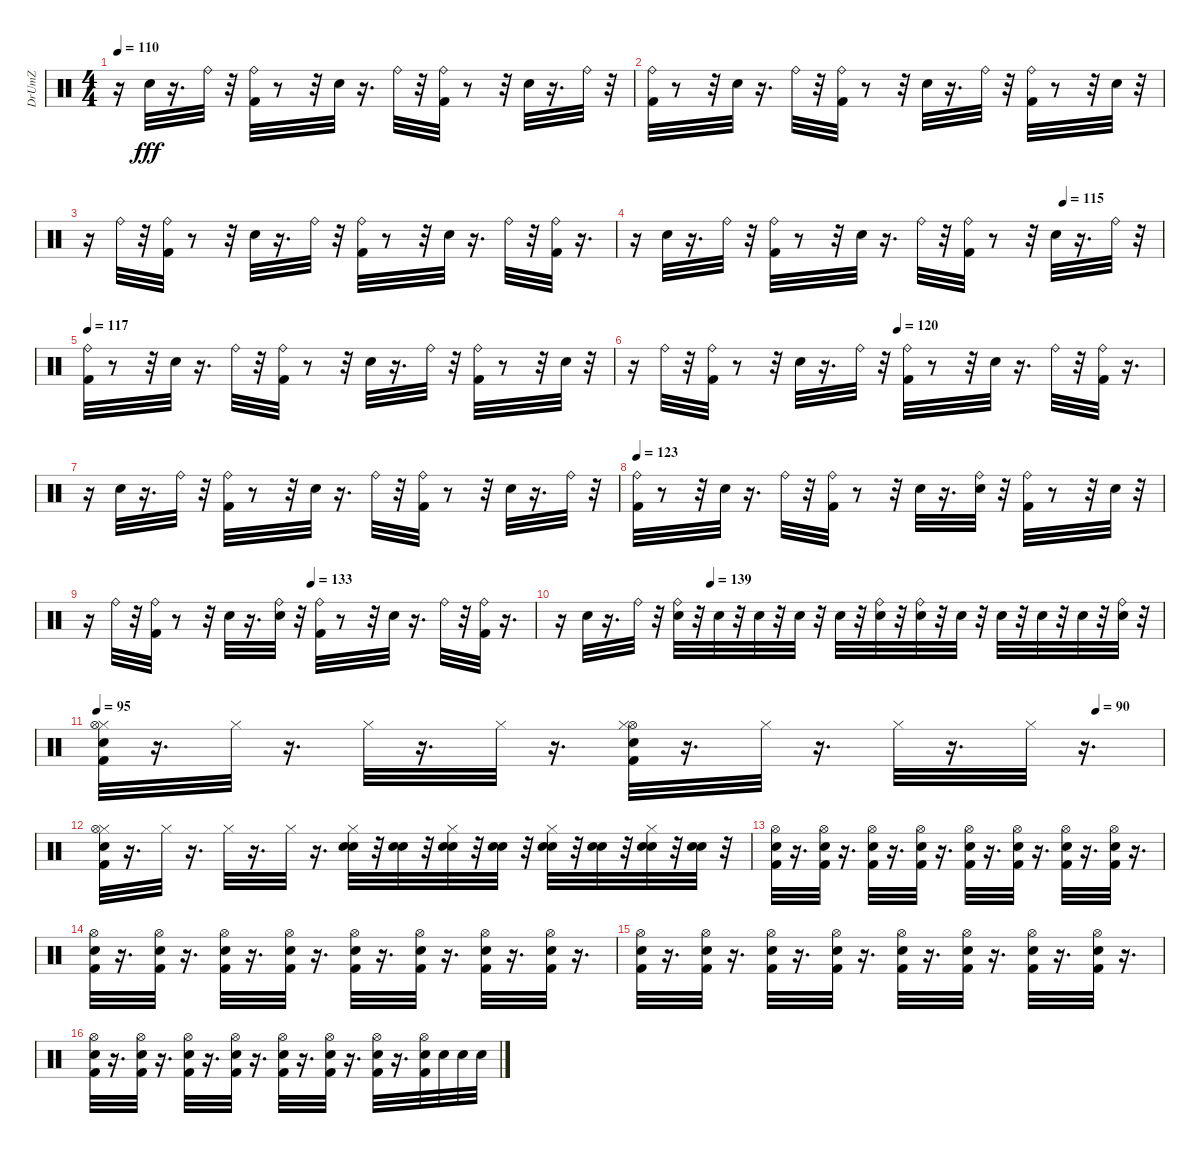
\track ("DrUmZ" "DrUmZ") {instrument percussion}
\staff {score}
\articulation defaults
\ts (4 4)
\tempo 110
\clef neutral
\ks c
r.16{dy fff} "Electric Snare (hit)".32 r.16{d} "Ride (bell)".32 r.32 ("Kick (hit) 2" "Ride (bell)").32 r.8 r.32 "Electric Snare (hit)".32 r.16{d} "Ride (bell)".32 r.32 ("Kick (hit) 2" "Ride (bell)").32 r.8 r.32 "Electric Snare (hit)".32 r.16{d} "Ride (bell)".32 r.32 |
("Ride (bell)" "Kick (hit) 2").32 r.8 r.32 "Electric Snare (hit)".32 r.16{d} "Ride (bell)".32 r.32 ("Kick (hit) 2" "Ride (bell)").32 r.8 r.32 "Electric Snare (hit)".32 r.16{d} "Ride (bell)".32 r.32 ("Kick (hit) 2" "Ride (bell)").32 r.8 r.32 "Electric Snare (hit)".32 r.32 |
r.16 "Ride (bell)".32 r.32 ("Kick (hit) 2" "Ride (bell)").32 r.8 r.32 "Electric Snare (hit)".32 r.16{d} "Ride (bell)".32 r.32 ("Ride (bell)" "Kick (hit) 2").32 r.8 r.32 "Electric Snare (hit)".32 r.16{d} "Ride (bell)".32 r.32 ("Kick (hit) 2" "Ride (bell)").32 r.16{d} |
\tempo (115 0.8125)
r.16 "Electric Snare (hit)".32 r.16{d} "Ride (bell)".32 r.32 ("Kick (hit) 2" "Ride (bell)").32 r.8 r.32 "Electric Snare (hit)".32 r.16{d} "Ride (bell)".32 r.32 ("Kick (hit) 2" "Ride (bell)").32 r.8 r.32 "Electric Snare (hit)".32 r.16{d} "Ride (bell)".32 r.32 |
\tempo 117
("Ride (bell)" "Kick (hit) 2").32 r.8 r.32 "Electric Snare (hit)".32 r.16{d} "Ride (bell)".32 r.32 ("Kick (hit) 2" "Ride (bell)").32 r.8 r.32 "Electric Snare (hit)".32 r.16{d} "Ride (bell)".32 r.32 ("Kick (hit) 2" "Ride (bell)").32 r.8 r.32 "Electric Snare (hit)".32 r.32 |
\tempo (120 0.5)
r.16 "Ride (bell)".32 r.32 ("Kick (hit) 2" "Ride (bell)").32 r.8 r.32 "Electric Snare (hit)".32 r.16{d} "Ride (bell)".32 r.32 ("Ride (bell)" "Kick (hit) 2").32 r.8 r.32 "Electric Snare (hit)".32 r.16{d} "Ride (bell)".32 r.32 ("Kick (hit) 2" "Ride (bell)").32 r.16{d} |
r.16 "Electric Snare (hit)".32 r.16{d} "Ride (bell)".32 r.32 ("Kick (hit) 2" "Ride (bell)").32 r.8 r.32 "Electric Snare (hit)".32 r.16{d} "Ride (bell)".32 r.32 ("Kick (hit) 2" "Ride (bell)").32 r.8 r.32 "Electric Snare (hit)".32 r.16{d} "Ride (bell)".32 r.32 |
\tempo 123
("Ride (bell)" "Kick (hit) 2").32 r.8 r.32 "Electric Snare (hit)".32 r.16{d} "Ride (bell)".32 r.32 ("Kick (hit) 2" "Ride (bell)").32 r.8 r.32 "Electric Snare (hit)".32 r.16{d} ("Ride (bell)" "Electric Snare (hit)").32 r.32 ("Kick (hit) 2" "Ride (bell)").32 r.8 r.32 "Electric Snare (hit)".32 r.32 |
\tempo (133 0.5)
r.16 "Ride (bell)".32 r.32 ("Kick (hit) 2" "Ride (bell)").32 r.8 r.32 "Electric Snare (hit)".32 r.16{d} ("Ride (bell)" "Electric Snare (hit)").32 r.32 ("Ride (bell)" "Kick (hit) 2").32 r.8 r.32 "Electric Snare (hit)".32 r.16{d} "Ride (bell)".32 r.32 ("Kick (hit) 2" "Ride (bell)").32 r.16{d} |
\tempo (139 0.25)
r.16 "Electric Snare (hit)".32 r.16{d} "Ride (bell)".32 r.32 ("Ride (bell)" "Electric Snare (hit)").32 r.32 "Electric Snare (hit)".32 r.32 "Electric Snare (hit)".32 r.32 "Electric Snare (hit)".32 r.32 "Electric Snare (hit)".32 r.32 ("Ride (bell)" "Electric Snare (hit)").32 r.32 ("Ride (bell)" "Electric Snare (hit)").32 r.32 "Electric Snare (hit)".32 r.32 "Electric Snare (hit)".32 r.32 "Electric Snare (hit)".32 r.32 "Electric Snare (hit)".32 r.32 ("Ride (bell)" "Electric Snare (hit)").32 r.32 |
\tempo 95
\tempo (90 0.9375)
("Kick (hit) 2" "Electric Snare (hit)" "Hi-Hat (closed)" "Hi-Hat (open)").32 r.16{d} "Hi-Hat (closed)".32 r.16{d} "Hi-Hat (closed)".32 r.16{d} "Hi-Hat (closed)".32 r.16{d} ("Hi-Hat (open)" "Hi-Hat (closed)" "Electric Snare (hit)" "Kick (hit) 2").32 r.16{d} "Hi-Hat (closed)".32 r.16{d} "Hi-Hat (closed)".32 r.16{d} "Hi-Hat (closed)".32 r.16{d} |
("Hi-Hat (closed)" "Electric Snare (hit)" "Kick (hit) 2" "Hi-Hat (open)").32 r.16{d} "Hi-Hat (closed)".32 r.16{d} "Hi-Hat (closed)".32 r.16{d} "Hi-Hat (closed)".32 r.16{d} ("Snare (hit) 2" "Hi-Hat (closed)" "Electric Snare (hit)").32 r.32 ("Snare (hit) 2" "Electric Snare (hit)").32 r.32 ("Snare (hit) 2" "Hi-Hat (closed)" "Electric Snare (hit)").32 r.32 ("Snare (hit) 2" "Electric Snare (hit)").32 r.32 ("Snare (hit) 2" "Hi-Hat (closed)" "Electric Snare (hit)").32 r.32 ("Electric Snare (hit)" "Snare (hit) 2").32 r.32 ("Snare (hit) 2" "Hi-Hat (closed)" "Electric Snare (hit)").32 r.32 ("Electric Snare (hit)" "Snare (hit) 2").32 r.32 |
("Electric Snare (hit)" "Kick (hit) 2" "Hi-Hat (open)").32 r.16{d} ("Electric Snare (hit)" "Kick (hit) 2" "Hi-Hat (open)").32 r.16{d} ("Electric Snare (hit)" "Kick (hit) 2" "Hi-Hat (open)").32 r.16{d} ("Electric Snare (hit)" "Kick (hit) 2" "Hi-Hat (open)").32 r.16{d} ("Electric Snare (hit)" "Kick (hit) 2" "Hi-Hat (open)").32 r.16{d} ("Electric Snare (hit)" "Kick (hit) 2" "Hi-Hat (open)").32 r.16{d} ("Electric Snare (hit)" "Kick (hit) 2" "Hi-Hat (open)").32 r.16{d} ("Electric Snare (hit)" "Kick (hit) 2" "Hi-Hat (open)").32 r.16{d} |
("Hi-Hat (open)" "Kick (hit) 2" "Electric Snare (hit)").32 r.16{d} ("Electric Snare (hit)" "Kick (hit) 2" "Hi-Hat (open)").32 r.16{d} ("Electric Snare (hit)" "Kick (hit) 2" "Hi-Hat (open)").32 r.16{d} ("Electric Snare (hit)" "Kick (hit) 2" "Hi-Hat (open)").32 r.16{d} ("Electric Snare (hit)" "Kick (hit) 2" "Hi-Hat (open)").32 r.16{d} ("Electric Snare (hit)" "Kick (hit) 2" "Hi-Hat (open)").32 r.16{d} ("Electric Snare (hit)" "Kick (hit) 2" "Hi-Hat (open)").32 r.16{d} ("Electric Snare (hit)" "Kick (hit) 2" "Hi-Hat (open)").32 r.16{d} |
("Hi-Hat (open)" "Kick (hit) 2" "Electric Snare (hit)").32 r.16{d} ("Electric Snare (hit)" "Kick (hit) 2" "Hi-Hat (open)").32 r.16{d} ("Electric Snare (hit)" "Kick (hit) 2" "Hi-Hat (open)").32 r.16{d} ("Electric Snare (hit)" "Kick (hit) 2" "Hi-Hat (open)").32 r.16{d} ("Electric Snare (hit)" "Kick (hit) 2" "Hi-Hat (open)").32 r.16{d} ("Electric Snare (hit)" "Kick (hit) 2" "Hi-Hat (open)").32 r.16{d} ("Electric Snare (hit)" "Kick (hit) 2" "Hi-Hat (open)").32 r.16{d} ("Electric Snare (hit)" "Kick (hit) 2" "Hi-Hat (open)").32 r.16{d} |
("Hi-Hat (open)" "Kick (hit) 2" "Electric Snare (hit)").32 r.16{d} ("Electric Snare (hit)" "Kick (hit) 2" "Hi-Hat (open)").32 r.16{d} ("Electric Snare (hit)" "Kick (hit) 2" "Hi-Hat (open)").32 r.16{d} ("Electric Snare (hit)" "Kick (hit) 2" "Hi-Hat (open)").32 r.16{d} ("Electric Snare (hit)" "Kick (hit) 2" "Hi-Hat (open)").32 r.16{d} ("Electric Snare (hit)" "Kick (hit) 2" "Hi-Hat (open)").32 r.16{d} ("Kick (hit) 2" "Hi-Hat (open)" "Electric Snare (hit)").32 r.16{d} ("Kick (hit) 2" "Hi-Hat (open)" "Electric Snare (hit)").32 "Electric Snare (hit)".32 "Electric Snare (hit)".32 "Electric Snare (hit)".32
